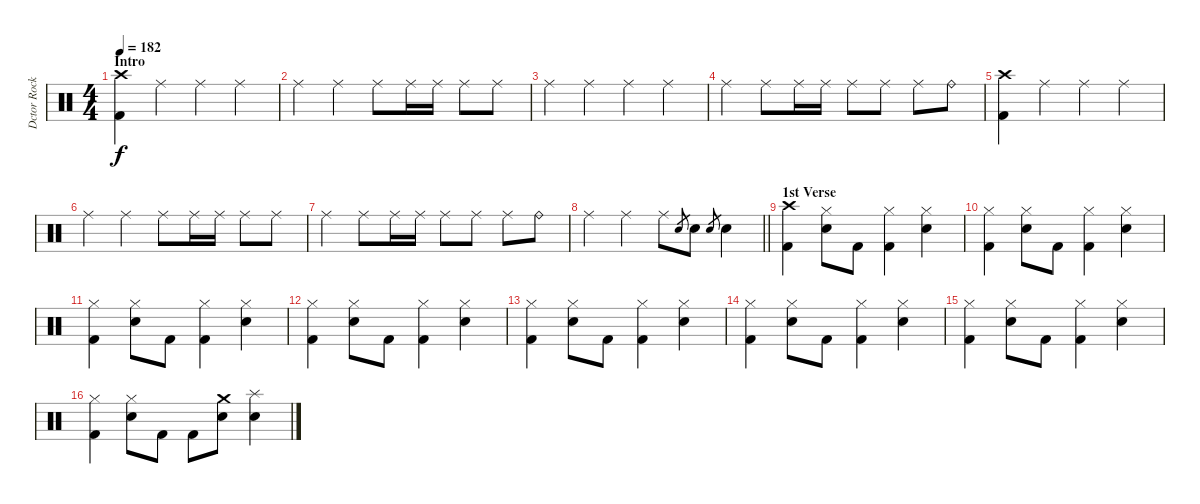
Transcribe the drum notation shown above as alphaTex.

\track ("Dctor Rock" "Dctor Rock") {instrument percussion}
\staff {score}
\articulation defaults
\ts (4 4)
\section ("" "Intro")
\tempo 182
\clef neutral
\ks c
("Crash high (hit)" "Kick (hit) 2").4{dy f} "Ride (middle)".4 "Ride (middle)".4 "Ride (middle)".4 |
"Ride (middle)".4 "Ride (middle)".4 "Ride (middle)".8 "Ride (middle)".16 "Ride (middle)".16 "Ride (middle)".8 "Ride (middle)".8 |
"Ride (middle)".4 "Ride (middle)".4 "Ride (middle)".4 "Ride (middle)".4 |
"Ride (middle)".4 "Ride (middle)".8 "Ride (middle)".16 "Ride (middle)".16 "Ride (middle)".8 "Ride (middle)".8 "Ride (middle)".8 "Ride (bell)".8 |
("Crash high (hit)" "Kick (hit) 2").4 "Ride (middle)".4 "Ride (middle)".4 "Ride (middle)".4 |
"Ride (middle)".4 "Ride (middle)".4 "Ride (middle)".8 "Ride (middle)".16 "Ride (middle)".16 "Ride (middle)".8 "Ride (middle)".8 |
"Ride (middle)".4 "Ride (middle)".8 "Ride (middle)".16 "Ride (middle)".16 "Ride (middle)".8 "Ride (middle)".8 "Ride (middle)".8 "Ride (bell)".8 |
\barLineRight lightlight "Ride (middle)".4 "Ride (middle)".4 "Ride (middle)".8 "Snare (hit) 2".8{gr} "Snare (hit) 2".8 "Snare (hit) 2".8{gr} "Snare (hit) 2".4
|
\section ("" "1st Verse")
("Crash high (hit)" "Kick (hit) 2").4 ("Hi-Hat (closed)" "Snare (hit) 2").8 "Kick (hit) 2".8 ("Hi-Hat (closed)" "Kick (hit) 2").4 ("Hi-Hat (closed)" "Snare (hit) 2").4 |
("Hi-Hat (closed)" "Kick (hit) 2").4 ("Hi-Hat (closed)" "Snare (hit) 2").8 "Kick (hit) 2".8 ("Hi-Hat (closed)" "Kick (hit) 2").4 ("Hi-Hat (closed)" "Snare (hit) 2").4 |
("Hi-Hat (closed)" "Kick (hit) 2").4 ("Hi-Hat (closed)" "Snare (hit) 2").8 "Kick (hit) 2".8 ("Hi-Hat (closed)" "Kick (hit) 2").4 ("Hi-Hat (closed)" "Snare (hit) 2").4 |
("Hi-Hat (closed)" "Kick (hit) 2").4 ("Hi-Hat (closed)" "Snare (hit) 2").8 "Kick (hit) 2".8 ("Hi-Hat (closed)" "Kick (hit) 2").4 ("Hi-Hat (closed)" "Snare (hit) 2").4 |
("Hi-Hat (closed)" "Kick (hit) 2").4 ("Hi-Hat (closed)" "Snare (hit) 2").8 "Kick (hit) 2".8 ("Hi-Hat (closed)" "Kick (hit) 2").4 ("Hi-Hat (closed)" "Snare (hit) 2").4 |
("Hi-Hat (closed)" "Kick (hit) 2").4 ("Hi-Hat (closed)" "Snare (hit) 2").8 "Kick (hit) 2".8 ("Hi-Hat (closed)" "Kick (hit) 2").4 ("Hi-Hat (closed)" "Snare (hit) 2").4 |
("Hi-Hat (closed)" "Kick (hit) 2").4 ("Hi-Hat (closed)" "Snare (hit) 2").8 "Kick (hit) 2".8 ("Hi-Hat (closed)" "Kick (hit) 2").4 ("Hi-Hat (closed)" "Snare (hit) 2").4 |
("Hi-Hat (closed)" "Kick (hit) 2").4 ("Hi-Hat (closed)" "Snare (hit) 2").8 "Kick (hit) 2".8 "Kick (hit) 2".8 ("Crash medium (hit)" "Snare (hit) 2").8 ("Splash (hit)" "Snare (hit) 2").4
